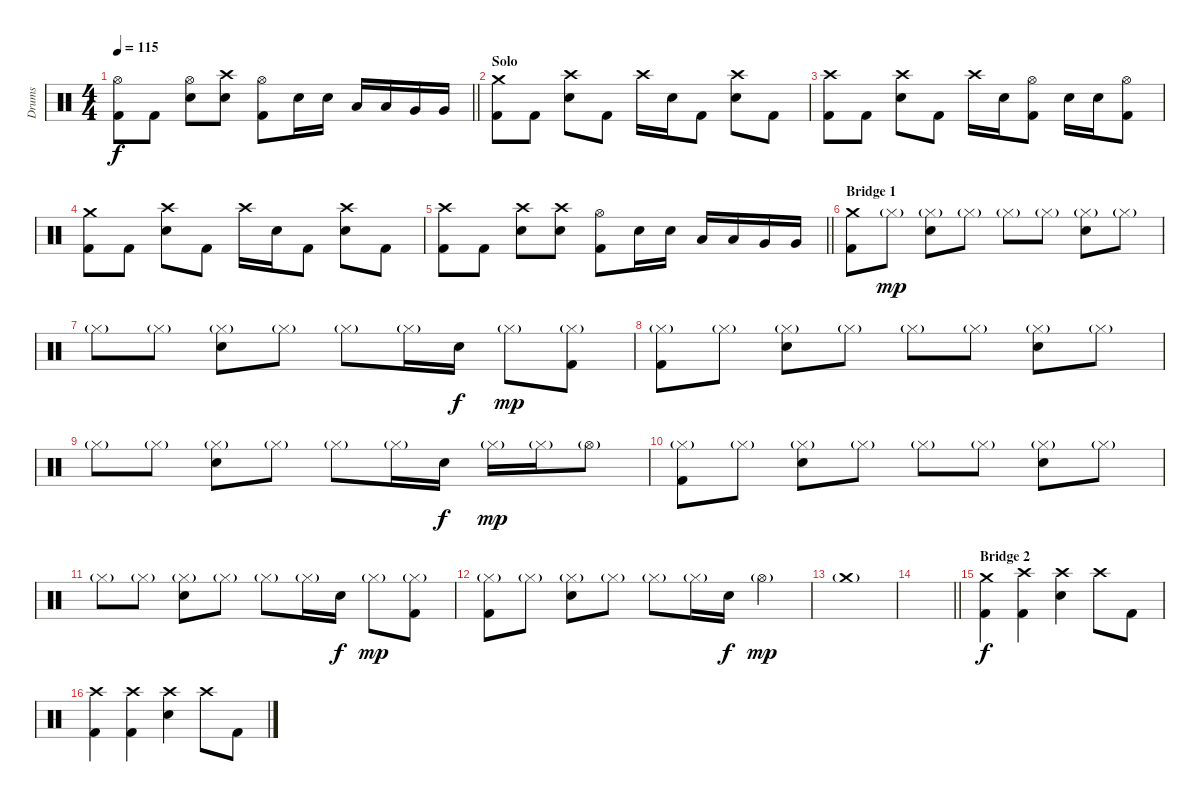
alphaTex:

\track ("Drums" "Drums") {instrument percussion}
\staff {score}
\articulation defaults
\ts (4 4)
\tempo 115
\clef neutral
\barLineRight lightlight
\ks c
("Hi-Hat (open)" "Kick (hit) 2").8{dy f} "Kick (hit) 2".8 ("Hi-Hat (open)" "Electric Snare (hit)").8 ("Crash high (hit)" "Electric Snare (hit)").8 ("Hi-Hat (open)" "Kick (hit) 2").8 "Electric Snare (hit)".16 "Electric Snare (hit)".16 "Low Tom (hit)".16 "Low Tom (hit)".16 "Very Low Tom (hit)".16 "Very Low Tom (hit)".16 |
\section ("" "Solo")
("Crash medium (hit)" "Kick (hit) 2").8 "Kick (hit) 2".8 ("Crash high (hit)" "Electric Snare (hit)").8 "Kick (hit) 2".8 "Crash high (hit)".16 "Electric Snare (hit)".16 "Kick (hit) 2".8 ("Crash high (hit)" "Electric Snare (hit)").8 "Kick (hit) 2".8 |
("Crash high (hit)" "Kick (hit) 2").8 "Kick (hit) 2".8 ("Crash high (hit)" "Electric Snare (hit)").8 "Kick (hit) 2".8 "Crash high (hit)".16 "Electric Snare (hit)".16 ("Hi-Hat (open)" "Kick (hit) 2").8 "Electric Snare (hit)".16 "Electric Snare (hit)".16 ("Hi-Hat (open)" "Kick (hit) 2").8 |
("Crash medium (hit)" "Kick (hit) 2").8 "Kick (hit) 2".8 ("Crash high (hit)" "Electric Snare (hit)").8 "Kick (hit) 2".8 "Crash high (hit)".16 "Electric Snare (hit)".16 "Kick (hit) 2".8 ("Crash high (hit)" "Electric Snare (hit)").8 "Kick (hit) 2".8 |
\barLineRight lightlight
("Crash high (hit)" "Kick (hit) 2").8 "Kick (hit) 2".8 ("Crash high (hit)" "Electric Snare (hit)").8 ("Crash high (hit)" "Electric Snare (hit)").8 ("Hi-Hat (open)" "Kick (hit) 2").8 "Electric Snare (hit)".16 "Electric Snare (hit)".16 "Low Tom (hit)".16 "Low Tom (hit)".16 "Very Low Tom (hit)".16 "Very Low Tom (hit)".16 |
\section ("" "Bridge 1")
("Crash medium (hit)" "Kick (hit) 2").8 "Hi-Hat (closed)"{g}.8{dy mp} ("Hi-Hat (closed)"{g} "Electric Snare (hit)").8 "Hi-Hat (closed)"{g}.8 "Hi-Hat (closed)"{g}.8 "Hi-Hat (closed)"{g}.8 ("Hi-Hat (closed)"{g} "Electric Snare (hit)").8 "Hi-Hat (closed)"{g}.8 |
"Hi-Hat (closed)"{g}.8 "Hi-Hat (closed)"{g}.8 ("Hi-Hat (closed)"{g} "Electric Snare (hit)").8 "Hi-Hat (closed)"{g}.8 "Hi-Hat (closed)"{g}.8 "Hi-Hat (closed)"{g}.16 "Electric Snare (hit)".16{dy f} "Hi-Hat (closed)"{g}.8{dy mp} ("Hi-Hat (closed)"{g} "Kick (hit) 2").8 |
("Hi-Hat (closed)"{g} "Kick (hit) 2").8 "Hi-Hat (closed)"{g}.8 ("Hi-Hat (closed)"{g} "Electric Snare (hit)").8 "Hi-Hat (closed)"{g}.8 "Hi-Hat (closed)"{g}.8 "Hi-Hat (closed)"{g}.8 ("Hi-Hat (closed)"{g} "Electric Snare (hit)").8 "Hi-Hat (closed)"{g}.8 |
"Hi-Hat (closed)"{g}.8 "Hi-Hat (closed)"{g}.8 ("Hi-Hat (closed)"{g} "Electric Snare (hit)").8 "Hi-Hat (closed)"{g}.8 "Hi-Hat (closed)"{g}.8 "Hi-Hat (closed)"{g}.16 "Electric Snare (hit)".16{dy f} "Hi-Hat (closed)"{g}.16{dy mp} "Hi-Hat (closed)"{g}.16 "Hi-Hat (open)"{g}.8 |
("Hi-Hat (closed)"{g} "Kick (hit) 2").8 "Hi-Hat (closed)"{g}.8 ("Hi-Hat (closed)"{g} "Electric Snare (hit)").8 "Hi-Hat (closed)"{g}.8 "Hi-Hat (closed)"{g}.8 "Hi-Hat (closed)"{g}.8 ("Hi-Hat (closed)"{g} "Electric Snare (hit)").8 "Hi-Hat (closed)"{g}.8 |
"Hi-Hat (closed)"{g}.8 "Hi-Hat (closed)"{g}.8 ("Hi-Hat (closed)"{g} "Electric Snare (hit)").8 "Hi-Hat (closed)"{g}.8 "Hi-Hat (closed)"{g}.8 "Hi-Hat (closed)"{g}.16 "Electric Snare (hit)".16{dy f} "Hi-Hat (closed)"{g}.8{dy mp} ("Hi-Hat (closed)"{g} "Kick (hit) 2").8 |
("Hi-Hat (closed)"{g} "Kick (hit) 2").8 "Hi-Hat (closed)"{g}.8 ("Hi-Hat (closed)"{g} "Electric Snare (hit)").8 "Hi-Hat (closed)"{g}.8 "Hi-Hat (closed)"{g}.8 "Hi-Hat (closed)"{g}.16 "Electric Snare (hit)".16{dy f} "Hi-Hat (open)"{g}.4{dy mp} |
"Crash medium (hit)"{g}.1 |
\barLineRight lightlight
|
\section ("" "Bridge 2")
("Crash medium (hit)" "Kick (hit) 2").4{dy f} ("Crash high (hit)" "Kick (hit) 2").4 ("Crash high (hit)" "Electric Snare (hit)").4 "Crash high (hit)".8 "Kick (hit) 2".8 |
("Crash high (hit)" "Kick (hit) 2").4 ("Crash high (hit)" "Kick (hit) 2").4 ("Crash high (hit)" "Electric Snare (hit)").4 "Crash high (hit)".8 "Kick (hit) 2".8
